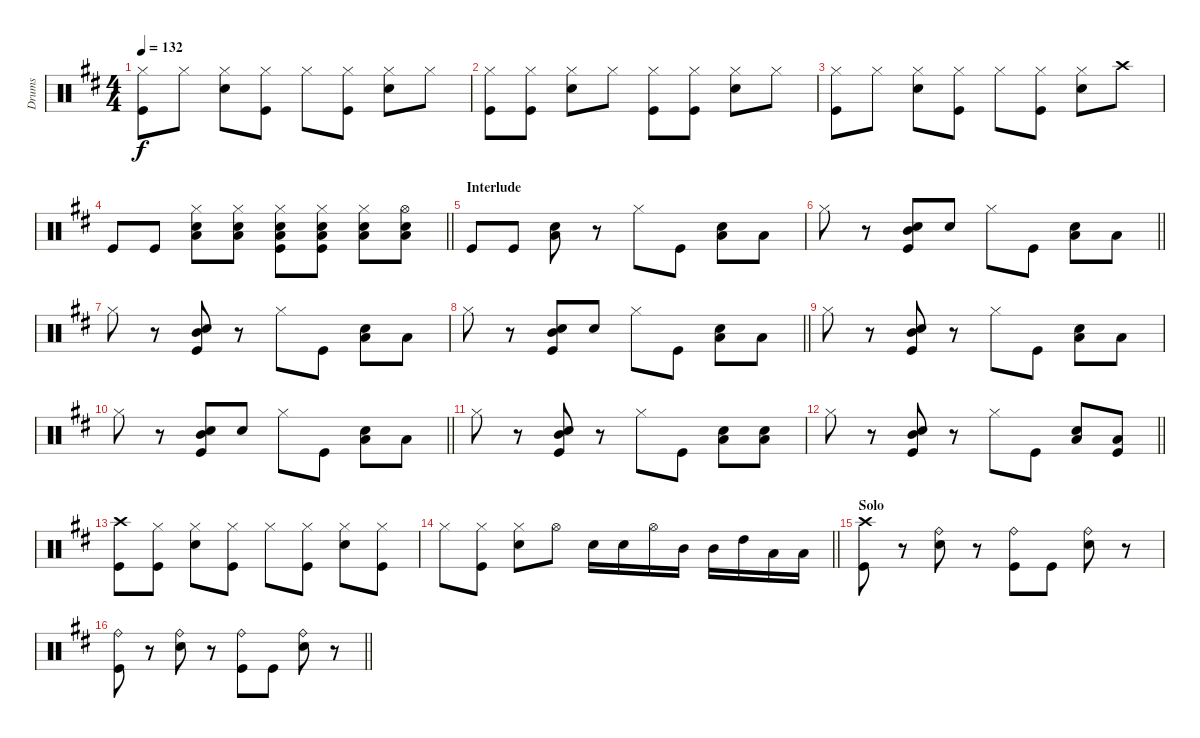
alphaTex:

\track ("Drums" "Drums") {instrument percussion}
\staff {score}
\articulation defaults
\ts (4 4)
\tempo 132
\clef neutral
\ks d
("Hi-Hat (closed)" "Kick (hit)").8{dy f} "Hi-Hat (closed)".8 ("Hi-Hat (closed)" "Electric Snare (hit)").8 ("Hi-Hat (closed)" "Kick (hit)").8 "Hi-Hat (closed)".8 ("Hi-Hat (closed)" "Kick (hit)").8 ("Hi-Hat (closed)" "Electric Snare (hit)").8 "Hi-Hat (closed)".8 |
("Hi-Hat (closed)" "Kick (hit)").8 ("Hi-Hat (closed)" "Kick (hit)").8 ("Hi-Hat (closed)" "Electric Snare (hit)").8 "Hi-Hat (closed)".8 ("Hi-Hat (closed)" "Kick (hit)").8 ("Hi-Hat (closed)" "Kick (hit)").8 ("Hi-Hat (closed)" "Electric Snare (hit)").8 "Hi-Hat (closed)".8 |
("Hi-Hat (closed)" "Kick (hit)").8 "Hi-Hat (closed)".8 ("Hi-Hat (closed)" "Electric Snare (hit)").8 ("Hi-Hat (closed)" "Kick (hit)").8 "Hi-Hat (closed)".8 ("Hi-Hat (closed)" "Kick (hit)").8 ("Hi-Hat (closed)" "Electric Snare (hit)").8 "Crash high (hit)".8 |
\barLineRight lightlight "Kick (hit)".8 "Kick (hit)".8
("Hi-Hat (closed)" "Low Floor Tom (hit)" "Electric Snare (hit)").8 ("Hi-Hat (closed)" "Low Floor Tom (hit)" "Electric Snare (hit)").8 ("Hi-Hat (closed)" "Low Floor Tom (hit)" "Electric Snare (hit)" "Kick (hit)").8 ("Hi-Hat (closed)" "Low Floor Tom (hit)" "Electric Snare (hit)" "Kick (hit)").8 ("Hi-Hat (closed)" "Low Floor Tom (hit)" "Electric Snare (hit)").8 ("Hi-Hat (open)" "Low Floor Tom (hit)" "Electric Snare (hit)").8 |
\section ("" "Interlude")
"Kick (hit)".8 "Kick (hit)".8 ("Hand Clap (hit)" "Low Floor Tom (hit)").8 r.8 "Hi-Hat (closed)".8 "Kick (hit)".8 ("Hand Clap (hit)" "Low Floor Tom (hit)").8 "Low Tom (hit)".8 |
\barLineRight lightlight "Hi-Hat (closed)".8
r.8 ("Mid Tom (hit)" "Hand Clap (hit)" "Kick (hit)").8 "Hand Clap (hit)".8 "Hi-Hat (closed)".8 "Kick (hit)".8 ("Hand Clap (hit)" "Low Floor Tom (hit)").8 "Low Tom (hit)".8 |
"Hi-Hat (closed)".8 r.8 ("Mid Tom (hit)" "Hand Clap (hit)" "Kick (hit)").8 r.8 "Hi-Hat (closed)".8 "Kick (hit)".8 ("Hand Clap (hit)" "Low Floor Tom (hit)").8 "Low Tom (hit)".8 |
\barLineRight lightlight "Hi-Hat (closed)".8
r.8 ("Mid Tom (hit)" "Hand Clap (hit)" "Kick (hit)").8 "Hand Clap (hit)".8 "Hi-Hat (closed)".8 "Kick (hit)".8 ("Hand Clap (hit)" "Low Floor Tom (hit)").8 "Low Tom (hit)".8 |
"Hi-Hat (closed)".8 r.8 ("Mid Tom (hit)" "Hand Clap (hit)" "Kick (hit)").8 r.8 "Hi-Hat (closed)".8 "Kick (hit)".8 ("Hand Clap (hit)" "Low Floor Tom (hit)").8 "Low Tom (hit)".8 |
\barLineRight lightlight "Hi-Hat (closed)".8
r.8 ("Mid Tom (hit)" "Hand Clap (hit)" "Kick (hit)").8 "Hand Clap (hit)".8 "Hi-Hat (closed)".8 "Kick (hit)".8 ("Hand Clap (hit)" "Low Floor Tom (hit)").8 "Low Tom (hit)".8 |
"Hi-Hat (closed)".8 r.8 ("Mid Tom (hit)" "Hand Clap (hit)" "Kick (hit)").8 r.8 "Hi-Hat (closed)".8 "Kick (hit)".8 ("Hand Clap (hit)" "Low Floor Tom (hit)").8 ("Hand Clap (hit)" "Low Tom (hit)").8 |
\barLineRight lightlight "Hi-Hat (closed)".8
r.8 ("Mid Tom (hit)" "Hand Clap (hit)" "Kick (hit)").8 r.8 "Hi-Hat (closed)".8 "Kick (hit)".8 ("Hand Clap (hit)" "Low Floor Tom (hit)").8 ("Low Tom (hit)" "Kick (hit)").8 |
("Crash high (hit)" "Kick (hit)").8 ("Hi-Hat (closed)" "Kick (hit)").8 ("Hi-Hat (closed)" "Electric Snare (hit)").8 ("Hi-Hat (closed)" "Kick (hit)").8 "Hi-Hat (closed)".8 ("Hi-Hat (closed)" "Kick (hit)").8 ("Hi-Hat (closed)" "Electric Snare (hit)").8 ("Hi-Hat (closed)" "Kick (hit)").8 |
\barLineRight lightlight "Hi-Hat (closed)".8
("Hi-Hat (closed)" "Kick (hit)").8 ("Hi-Hat (closed)" "Electric Snare (hit)").8 "Hi-Hat (open)".8 "Electric Snare (hit)".16 "Electric Snare (hit)".16 "Hi-Hat (open)".16 "Mid Tom (hit)".16 "Mid Tom (hit)".16 "High Tom (hit)".16 "Low Floor Tom (hit)".16 "Low Tom (hit)".16 |
\section ("" "Solo")
("Crash high (hit)" "Kick (hit)").8 r.8 ("Ride (bell)" "Electric Snare (hit)").8 r.8 ("Ride (bell)" "Kick (hit)").8 "Kick (hit)".8 ("Ride (bell)" "Electric Snare (hit)").8 r.8 |
\barLineRight lightlight
("Ride (bell)" "Kick (hit)").8 r.8 ("Ride (bell)" "Electric Snare (hit)").8 r.8 ("Ride (bell)" "Kick (hit)").8 "Kick (hit)".8 ("Ride (bell)" "Electric Snare (hit)").8 r.8
